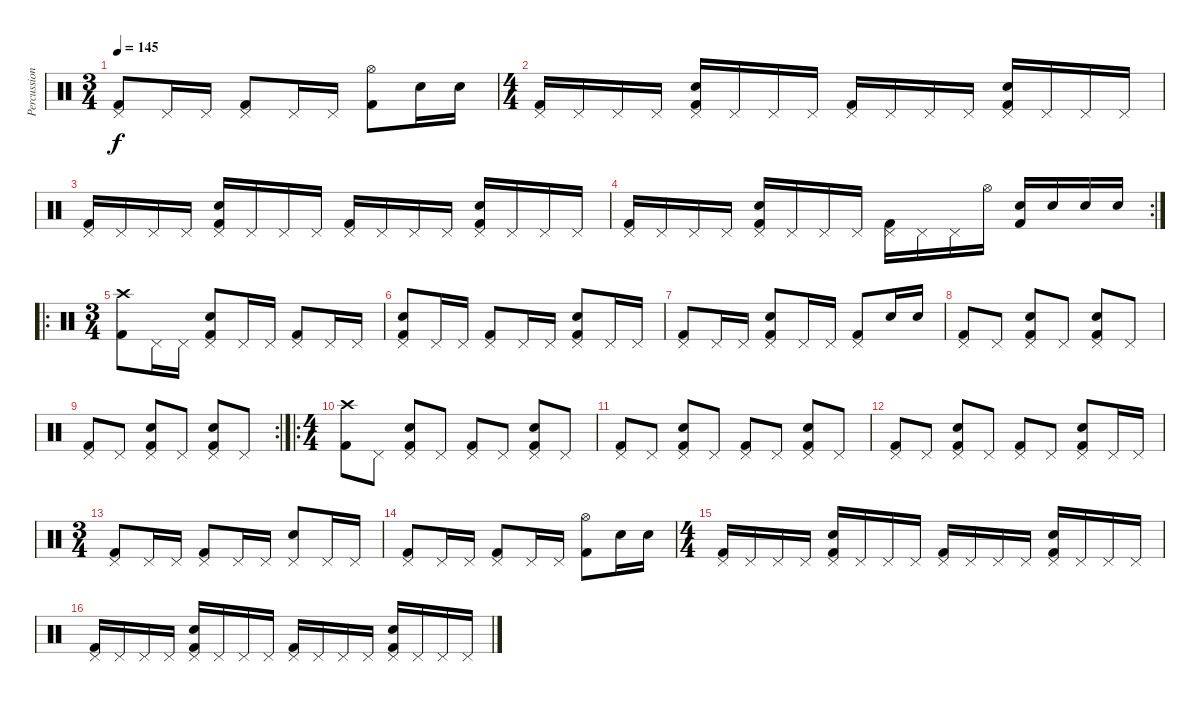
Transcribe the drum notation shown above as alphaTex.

\track ("Percussion" "Percussion") {instrument percussion}
\staff {score}
\articulation defaults
\ts (3 4)
\tempo 145
\clef neutral
\ks c
("Pedal Hi-Hat (hit)" "Kick (hit) 2").8{dy f} "Pedal Hi-Hat (hit)".16 "Pedal Hi-Hat (hit)".16 ("Pedal Hi-Hat (hit)" "Kick (hit) 2").8 "Pedal Hi-Hat (hit)".16 "Pedal Hi-Hat (hit)".16 ("Hi-Hat (open)" "Kick (hit) 2").8 "Electric Snare (hit)".16 "Electric Snare (hit)".16 |
\ts (4 4)
("Pedal Hi-Hat (hit)" "Kick (hit) 2").16 "Pedal Hi-Hat (hit)".16 "Pedal Hi-Hat (hit)".16 "Pedal Hi-Hat (hit)".16 ("Pedal Hi-Hat (hit)" "Kick (hit) 2" "Electric Snare (hit)").16 "Pedal Hi-Hat (hit)".16 "Pedal Hi-Hat (hit)".16 "Pedal Hi-Hat (hit)".16 ("Pedal Hi-Hat (hit)" "Kick (hit) 2").16 "Pedal Hi-Hat (hit)".16 "Pedal Hi-Hat (hit)".16 "Pedal Hi-Hat (hit)".16 ("Pedal Hi-Hat (hit)" "Kick (hit) 2" "Electric Snare (hit)").16 "Pedal Hi-Hat (hit)".16 "Pedal Hi-Hat (hit)".16 "Pedal Hi-Hat (hit)".16 |
("Pedal Hi-Hat (hit)" "Kick (hit) 2").16 "Pedal Hi-Hat (hit)".16 "Pedal Hi-Hat (hit)".16 "Pedal Hi-Hat (hit)".16 ("Pedal Hi-Hat (hit)" "Kick (hit) 2" "Electric Snare (hit)").16 "Pedal Hi-Hat (hit)".16 "Pedal Hi-Hat (hit)".16 "Pedal Hi-Hat (hit)".16 ("Pedal Hi-Hat (hit)" "Kick (hit) 2").16 "Pedal Hi-Hat (hit)".16 "Pedal Hi-Hat (hit)".16 "Pedal Hi-Hat (hit)".16 ("Pedal Hi-Hat (hit)" "Kick (hit) 2" "Electric Snare (hit)").16 "Pedal Hi-Hat (hit)".16 "Pedal Hi-Hat (hit)".16 "Pedal Hi-Hat (hit)".16 |
\rc 2
("Pedal Hi-Hat (hit)" "Kick (hit) 2").16 "Pedal Hi-Hat (hit)".16 "Pedal Hi-Hat (hit)".16 "Pedal Hi-Hat (hit)".16 ("Pedal Hi-Hat (hit)" "Kick (hit) 2" "Electric Snare (hit)").16 "Pedal Hi-Hat (hit)".16 "Pedal Hi-Hat (hit)".16 "Pedal Hi-Hat (hit)".16 ("Pedal Hi-Hat (hit)" "Kick (hit) 2").16 "Pedal Hi-Hat (hit)".16 "Pedal Hi-Hat (hit)".16 "Hi-Hat (open)".16 ("Kick (hit) 2" "Electric Snare (hit)").16 "Electric Snare (hit)".16 "Electric Snare (hit)".16 "Electric Snare (hit)".16 |
\ro
\ts (3 4)
("Crash high (hit)" "Kick (hit) 2").8 "Pedal Hi-Hat (hit)".16 "Pedal Hi-Hat (hit)".16 ("Pedal Hi-Hat (hit)" "Kick (hit) 2" "Electric Snare (hit)").8 "Pedal Hi-Hat (hit)".16 "Pedal Hi-Hat (hit)".16 ("Pedal Hi-Hat (hit)" "Kick (hit) 2").8 "Pedal Hi-Hat (hit)".16 "Pedal Hi-Hat (hit)".16 |
("Pedal Hi-Hat (hit)" "Kick (hit) 2" "Electric Snare (hit)").8 "Pedal Hi-Hat (hit)".16 "Pedal Hi-Hat (hit)".16 ("Pedal Hi-Hat (hit)" "Kick (hit) 2").8 "Pedal Hi-Hat (hit)".16 "Pedal Hi-Hat (hit)".16 ("Pedal Hi-Hat (hit)" "Kick (hit) 2" "Electric Snare (hit)").8 "Pedal Hi-Hat (hit)".16 "Pedal Hi-Hat (hit)".16 |
("Pedal Hi-Hat (hit)" "Kick (hit) 2").8 "Pedal Hi-Hat (hit)".16 "Pedal Hi-Hat (hit)".16 ("Pedal Hi-Hat (hit)" "Kick (hit) 2" "Electric Snare (hit)").8 "Pedal Hi-Hat (hit)".16 "Pedal Hi-Hat (hit)".16 ("Kick (hit) 2" "Pedal Hi-Hat (hit)").8 "Electric Snare (hit)".16 "Electric Snare (hit)".16 |
("Pedal Hi-Hat (hit)" "Kick (hit) 2").8 "Pedal Hi-Hat (hit)".8 ("Pedal Hi-Hat (hit)" "Kick (hit) 2" "Electric Snare (hit)").8 "Pedal Hi-Hat (hit)".8 ("Kick (hit) 2" "Electric Snare (hit)" "Pedal Hi-Hat (hit)").8 "Pedal Hi-Hat (hit)".8 |
\rc 2
("Pedal Hi-Hat (hit)" "Kick (hit) 2").8 "Pedal Hi-Hat (hit)".8 ("Pedal Hi-Hat (hit)" "Kick (hit) 2" "Electric Snare (hit)").8 "Pedal Hi-Hat (hit)".8 ("Kick (hit) 2" "Electric Snare (hit)" "Pedal Hi-Hat (hit)").8 "Pedal Hi-Hat (hit)".8 |
\ro
\ts (4 4)
("Crash high (hit)" "Kick (hit) 2").8 "Pedal Hi-Hat (hit)".8 ("Pedal Hi-Hat (hit)" "Kick (hit) 2" "Electric Snare (hit)").8 "Pedal Hi-Hat (hit)".8 ("Pedal Hi-Hat (hit)" "Kick (hit) 2").8 "Pedal Hi-Hat (hit)".8 ("Pedal Hi-Hat (hit)" "Kick (hit) 2" "Electric Snare (hit)").8 "Pedal Hi-Hat (hit)".8 |
("Pedal Hi-Hat (hit)" "Kick (hit) 2").8 "Pedal Hi-Hat (hit)".8 ("Pedal Hi-Hat (hit)" "Kick (hit) 2" "Electric Snare (hit)").8 "Pedal Hi-Hat (hit)".8 ("Pedal Hi-Hat (hit)" "Kick (hit) 2").8 "Pedal Hi-Hat (hit)".8 ("Pedal Hi-Hat (hit)" "Kick (hit) 2" "Electric Snare (hit)").8 "Pedal Hi-Hat (hit)".8 |
("Pedal Hi-Hat (hit)" "Kick (hit) 2").8 "Pedal Hi-Hat (hit)".8 ("Pedal Hi-Hat (hit)" "Kick (hit) 2" "Electric Snare (hit)").8 "Pedal Hi-Hat (hit)".8 ("Pedal Hi-Hat (hit)" "Kick (hit) 2").8 "Pedal Hi-Hat (hit)".8 ("Pedal Hi-Hat (hit)" "Kick (hit) 2" "Electric Snare (hit)").8 "Pedal Hi-Hat (hit)".16 "Pedal Hi-Hat (hit)".16 |
\ts (3 4)
("Pedal Hi-Hat (hit)" "Kick (hit) 2").8 "Pedal Hi-Hat (hit)".16 "Pedal Hi-Hat (hit)".16 ("Pedal Hi-Hat (hit)" "Kick (hit) 2").8 "Pedal Hi-Hat (hit)".16 "Pedal Hi-Hat (hit)".16 ("Pedal Hi-Hat (hit)" "Electric Snare (hit)").8 "Pedal Hi-Hat (hit)".16 "Pedal Hi-Hat (hit)".16 |
("Pedal Hi-Hat (hit)" "Kick (hit) 2").8 "Pedal Hi-Hat (hit)".16 "Pedal Hi-Hat (hit)".16 ("Pedal Hi-Hat (hit)" "Kick (hit) 2").8 "Pedal Hi-Hat (hit)".16 "Pedal Hi-Hat (hit)".16 ("Hi-Hat (open)" "Kick (hit) 2").8 "Electric Snare (hit)".16 "Electric Snare (hit)".16 |
\ts (4 4)
("Pedal Hi-Hat (hit)" "Kick (hit) 2").16 "Pedal Hi-Hat (hit)".16 "Pedal Hi-Hat (hit)".16 "Pedal Hi-Hat (hit)".16 ("Pedal Hi-Hat (hit)" "Kick (hit) 2" "Electric Snare (hit)").16 "Pedal Hi-Hat (hit)".16 "Pedal Hi-Hat (hit)".16 "Pedal Hi-Hat (hit)".16 ("Pedal Hi-Hat (hit)" "Kick (hit) 2").16 "Pedal Hi-Hat (hit)".16 "Pedal Hi-Hat (hit)".16 "Pedal Hi-Hat (hit)".16 ("Pedal Hi-Hat (hit)" "Kick (hit) 2" "Electric Snare (hit)").16 "Pedal Hi-Hat (hit)".16 "Pedal Hi-Hat (hit)".16 "Pedal Hi-Hat (hit)".16 |
("Pedal Hi-Hat (hit)" "Kick (hit) 2").16 "Pedal Hi-Hat (hit)".16 "Pedal Hi-Hat (hit)".16 "Pedal Hi-Hat (hit)".16 ("Pedal Hi-Hat (hit)" "Kick (hit) 2" "Electric Snare (hit)").16 "Pedal Hi-Hat (hit)".16 "Pedal Hi-Hat (hit)".16 "Pedal Hi-Hat (hit)".16 ("Pedal Hi-Hat (hit)" "Kick (hit) 2").16 "Pedal Hi-Hat (hit)".16 "Pedal Hi-Hat (hit)".16 "Pedal Hi-Hat (hit)".16 ("Pedal Hi-Hat (hit)" "Kick (hit) 2" "Electric Snare (hit)").16 "Pedal Hi-Hat (hit)".16 "Pedal Hi-Hat (hit)".16 "Pedal Hi-Hat (hit)".16
